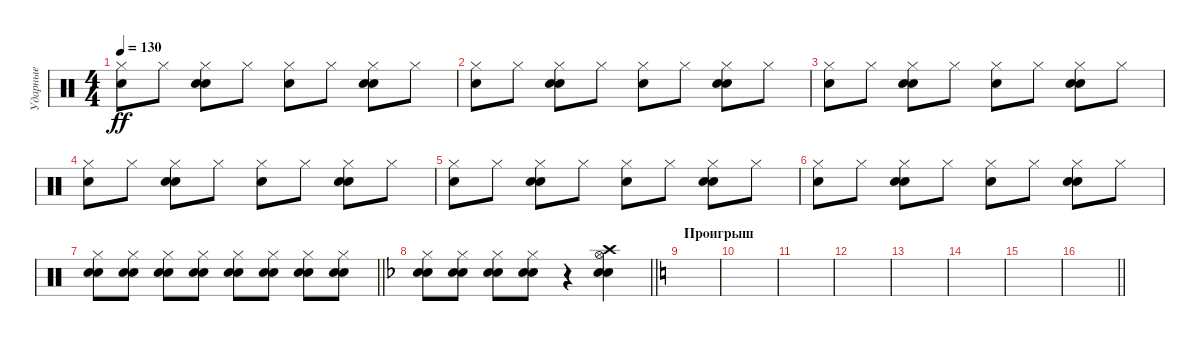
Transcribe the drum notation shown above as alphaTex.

\track ("Ударные" "Ударные") {instrument percussion}
\staff {score}
\articulation defaults
\ts (4 4)
\tempo 130
\clef neutral
\ks c
("Hi-Hat (closed)" "Snare (hit) 2").8{dy ff} "Hi-Hat (closed)".8 ("Hi-Hat (closed)" "Snare (hit) 2" "Electric Snare (hit)").8 "Hi-Hat (closed)".8 ("Hi-Hat (closed)" "Snare (hit) 2").8 "Hi-Hat (closed)".8 ("Hi-Hat (closed)" "Snare (hit) 2" "Electric Snare (hit)").8 "Hi-Hat (closed)".8 |
("Hi-Hat (closed)" "Snare (hit) 2").8 "Hi-Hat (closed)".8 ("Hi-Hat (closed)" "Snare (hit) 2" "Electric Snare (hit)").8 "Hi-Hat (closed)".8 ("Hi-Hat (closed)" "Snare (hit) 2").8 "Hi-Hat (closed)".8 ("Hi-Hat (closed)" "Snare (hit) 2" "Electric Snare (hit)").8 "Hi-Hat (closed)".8 |
("Hi-Hat (closed)" "Snare (hit) 2").8 "Hi-Hat (closed)".8 ("Hi-Hat (closed)" "Snare (hit) 2" "Electric Snare (hit)").8 "Hi-Hat (closed)".8 ("Hi-Hat (closed)" "Snare (hit) 2").8 "Hi-Hat (closed)".8 ("Hi-Hat (closed)" "Snare (hit) 2" "Electric Snare (hit)").8 "Hi-Hat (closed)".8 |
("Hi-Hat (closed)" "Snare (hit) 2").8 "Hi-Hat (closed)".8 ("Hi-Hat (closed)" "Snare (hit) 2" "Electric Snare (hit)").8 "Hi-Hat (closed)".8 ("Hi-Hat (closed)" "Snare (hit) 2").8 "Hi-Hat (closed)".8 ("Hi-Hat (closed)" "Snare (hit) 2" "Electric Snare (hit)").8 "Hi-Hat (closed)".8 |
("Hi-Hat (closed)" "Snare (hit) 2").8 "Hi-Hat (closed)".8 ("Hi-Hat (closed)" "Snare (hit) 2" "Electric Snare (hit)").8 "Hi-Hat (closed)".8 ("Hi-Hat (closed)" "Snare (hit) 2").8 "Hi-Hat (closed)".8 ("Hi-Hat (closed)" "Snare (hit) 2" "Electric Snare (hit)").8 "Hi-Hat (closed)".8 |
("Hi-Hat (closed)" "Snare (hit) 2").8 "Hi-Hat (closed)".8 ("Hi-Hat (closed)" "Snare (hit) 2" "Electric Snare (hit)").8 "Hi-Hat (closed)".8 ("Hi-Hat (closed)" "Snare (hit) 2").8 "Hi-Hat (closed)".8 ("Hi-Hat (closed)" "Snare (hit) 2" "Electric Snare (hit)").8 "Hi-Hat (closed)".8 |
\barLineRight lightlight
("Hi-Hat (closed)" "Snare (hit) 2" "Electric Snare (hit)").8 ("Hi-Hat (closed)" "Snare (hit) 2" "Electric Snare (hit)").8 ("Hi-Hat (closed)" "Snare (hit) 2" "Electric Snare (hit)").8 ("Hi-Hat (closed)" "Snare (hit) 2" "Electric Snare (hit)").8 ("Hi-Hat (closed)" "Snare (hit) 2" "Electric Snare (hit)").8 ("Hi-Hat (closed)" "Snare (hit) 2" "Electric Snare (hit)").8 ("Hi-Hat (closed)" "Snare (hit) 2" "Electric Snare (hit)").8 ("Hi-Hat (closed)" "Snare (hit) 2" "Electric Snare (hit)").8 |
\barLineRight lightlight
\ks f
("Hi-Hat (closed)" "Snare (hit) 2" "Electric Snare (hit)").8 ("Hi-Hat (closed)" "Snare (hit) 2" "Electric Snare (hit)").8 ("Hi-Hat (closed)" "Snare (hit) 2" "Electric Snare (hit)").8 ("Hi-Hat (closed)" "Snare (hit) 2" "Electric Snare (hit)").8 r.4 ("Hi-Hat (open)" "Snare (hit) 2" "Electric Snare (hit)" "Crash high (hit)").4 |
\section ("" "Проигрыш")
\ks c
|
|
|
|
|
|
|
\barLineRight lightlight
